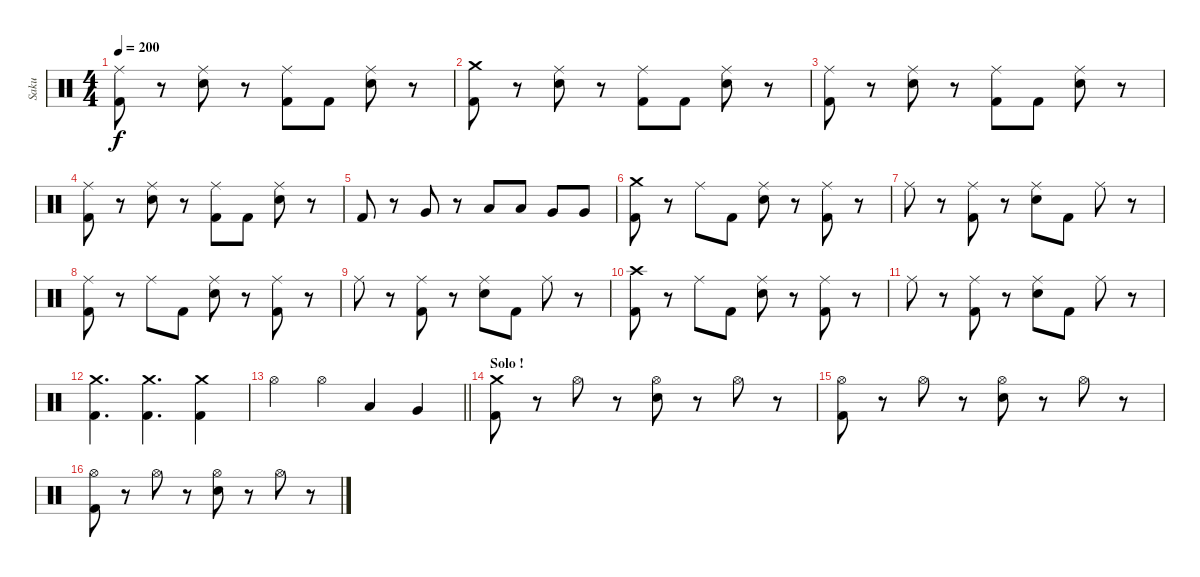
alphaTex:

\track ("Saku" "Saku") {instrument percussion}
\staff {score}
\articulation defaults
\ts (4 4)
\tempo 200
\clef neutral
\ks c
("Ride (middle)" "Kick (hit) 2").8{dy f} r.8 ("Ride (middle)" "Electric Snare (hit)").8 r.8 ("Ride (middle)" "Kick (hit) 2").8 "Kick (hit) 2".8 ("Ride (middle)" "Electric Snare (hit)").8 r.8 |
("Crash medium (hit)" "Kick (hit) 2").8 r.8 ("Ride (middle)" "Electric Snare (hit)").8 r.8 ("Ride (middle)" "Kick (hit) 2").8 "Kick (hit) 2".8 ("Ride (middle)" "Electric Snare (hit)").8 r.8 |
("Ride (middle)" "Kick (hit) 2").8 r.8 ("Ride (middle)" "Electric Snare (hit)").8 r.8 ("Ride (middle)" "Kick (hit) 2").8 "Kick (hit) 2".8 ("Ride (middle)" "Electric Snare (hit)").8 r.8 |
("Ride (middle)" "Kick (hit) 2").8 r.8 ("Ride (middle)" "Electric Snare (hit)").8 r.8 ("Ride (middle)" "Kick (hit) 2").8 "Kick (hit) 2".8 ("Ride (middle)" "Electric Snare (hit)").8 r.8 |
"Kick (hit) 2".8 r.8 "Very Low Tom (hit)".8 r.8 "Low Tom (hit)".8 "Low Tom (hit)".8 "Very Low Tom (hit)".8 "Very Low Tom (hit)".8 |
("Crash medium (hit)" "Kick (hit) 2").8 r.8 "Ride (middle)".8 "Kick (hit) 2".8 ("Ride (middle)" "Electric Snare (hit)").8 r.8 ("Ride (middle)" "Kick (hit) 2").8 r.8 |
"Ride (middle)".8 r.8 ("Ride (middle)" "Kick (hit) 2").8 r.8 ("Ride (middle)" "Electric Snare (hit)").8 "Kick (hit) 2".8 "Ride (middle)".8 r.8 |
("Ride (middle)" "Kick (hit) 2").8 r.8 "Ride (middle)".8 "Kick (hit) 2".8 ("Ride (middle)" "Electric Snare (hit)").8 r.8 ("Ride (middle)" "Kick (hit) 2").8 r.8 |
"Ride (middle)".8 r.8 ("Ride (middle)" "Kick (hit) 2").8 r.8 ("Ride (middle)" "Electric Snare (hit)").8 "Kick (hit) 2".8 "Ride (middle)".8 r.8 |
("Crash high (hit)" "Kick (hit) 2").8 r.8 "Ride (middle)".8 "Kick (hit) 2".8 ("Ride (middle)" "Electric Snare (hit)").8 r.8 ("Ride (middle)" "Kick (hit) 2").8 r.8 |
"Ride (middle)".8 r.8 ("Ride (middle)" "Kick (hit) 2").8 r.8 ("Ride (middle)" "Electric Snare (hit)").8 "Kick (hit) 2".8 "Ride (middle)".8 r.8 |
("Crash medium (hit)" "Kick (hit) 2").4{d} ("Crash medium (hit)" "Kick (hit) 2").4{d} ("Crash medium (hit)" "Kick (hit) 2").4 |
\barLineRight lightlight "Hi-Hat (open)".4 "Hi-Hat (open)".4 "Low Tom (hit)".4 "Very Low Tom (hit)".4
|
\section ("" "Solo !")
("Crash medium (hit)" "Kick (hit) 2").8 r.8 "Hi-Hat (open)".8 r.8 ("Hi-Hat (open)" "Electric Snare (hit)").8 r.8 "Hi-Hat (open)".8 r.8 |
("Hi-Hat (open)" "Kick (hit) 2").8 r.8 "Hi-Hat (open)".8 r.8 ("Hi-Hat (open)" "Electric Snare (hit)").8 r.8 "Hi-Hat (open)".8 r.8 |
("Hi-Hat (open)" "Kick (hit) 2").8 r.8 "Hi-Hat (open)".8 r.8 ("Hi-Hat (open)" "Electric Snare (hit)").8 r.8 "Hi-Hat (open)".8 r.8
